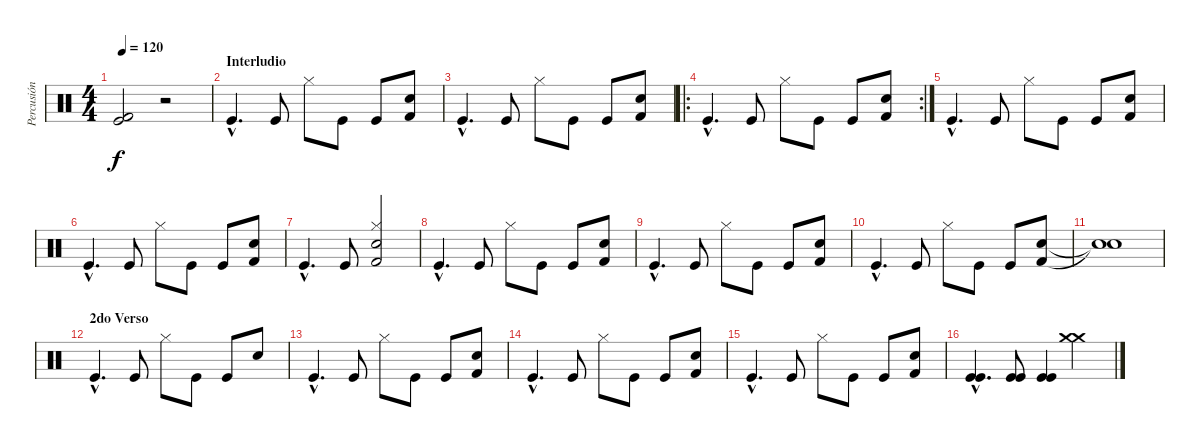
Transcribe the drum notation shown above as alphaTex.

\track ("Percusión" "Percusión") {instrument percussion}
\staff {score}
\articulation defaults
\ts (4 4)
\tempo 120
\clef neutral
\ks c
("Kick (hit)" "Kick (hit) 2").2{dy f} r.2 |
\section ("" "Interludio")
"Kick (hit)"{hac}.4{d} "Kick (hit)".8 "Hi-Hat (closed)".8 "Kick (hit)".8 "Kick (hit)".8 ("Snare (hit) 2" "Kick (hit) 2").8 |
"Kick (hit)"{hac}.4{d} "Kick (hit)".8 "Hi-Hat (closed)".8 "Kick (hit)".8 "Kick (hit)".8 ("Snare (hit) 2" "Kick (hit) 2").8 |
\ro
\rc 2 "Kick (hit)"{hac}.4{d} "Kick (hit)".8 "Hi-Hat (closed)".8 "Kick (hit)".8 "Kick (hit)".8
("Snare (hit) 2" "Kick (hit) 2").8 |
"Kick (hit)"{hac}.4{d} "Kick (hit)".8 "Hi-Hat (closed)".8 "Kick (hit)".8 "Kick (hit)".8 ("Snare (hit) 2" "Kick (hit) 2").8 |
"Kick (hit)"{hac}.4{d} "Kick (hit)".8 "Hi-Hat (closed)".8 "Kick (hit)".8 "Kick (hit)".8 ("Snare (hit) 2" "Kick (hit) 2").8 |
"Kick (hit)"{hac}.4{d} "Kick (hit)".8 ("Kick (hit) 2" "Snare (hit) 2" "Hi-Hat (closed)").2 |
"Kick (hit)"{hac}.4{d} "Kick (hit)".8 "Hi-Hat (closed)".8 "Kick (hit)".8 "Kick (hit)".8 ("Snare (hit) 2" "Kick (hit) 2").8 |
"Kick (hit)"{hac}.4{d} "Kick (hit)".8 "Hi-Hat (closed)".8 "Kick (hit)".8 "Kick (hit)".8 ("Snare (hit) 2" "Kick (hit) 2").8 |
"Kick (hit)"{hac}.4{d} "Kick (hit)".8 "Hi-Hat (closed)".8 "Kick (hit)".8 "Kick (hit)".8 ("Snare (hit) 2" "Kick (hit) 2").8 |
("Snare (hit)"{t} "Snare (hit)"{t}).1 |
\section ("" "2do Verso")
"Kick (hit)"{hac}.4{d} "Kick (hit)".8 "Hi-Hat (closed)".8 "Kick (hit)".8 "Kick (hit)".8 "Snare (hit) 2".8 |
"Kick (hit)"{hac}.4{d} "Kick (hit)".8 "Hi-Hat (closed)".8 "Kick (hit)".8 "Kick (hit)".8 ("Snare (hit) 2" "Kick (hit) 2").8 |
"Kick (hit)"{hac}.4{d} "Kick (hit)".8 "Hi-Hat (closed)".8 "Kick (hit)".8 "Kick (hit)".8 ("Snare (hit) 2" "Kick (hit) 2").8 |
"Kick (hit)"{hac}.4{d} "Kick (hit)".8 "Hi-Hat (closed)".8 "Kick (hit)".8 "Kick (hit)".8 ("Snare (hit) 2" "Kick (hit) 2").8 |
("Kick (hit)"{hac} "Kick (hit)"{hac}).4{d} ("Kick (hit)" "Kick (hit)").8 ("Kick (hit)" "Kick (hit)").4 ("Crash medium (hit)" "Crash medium (hit)").4
